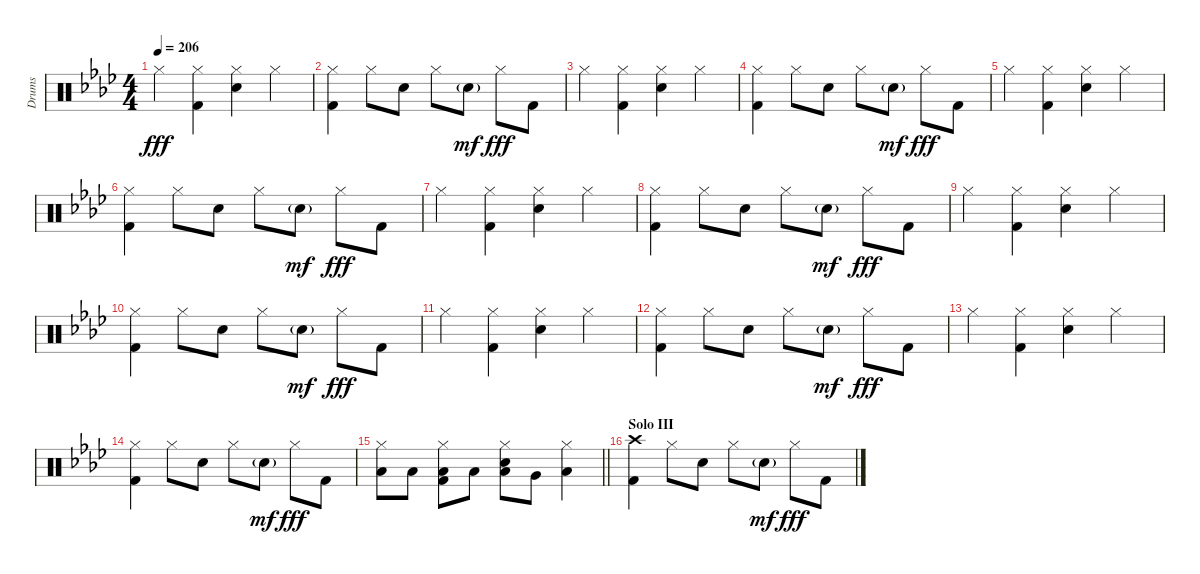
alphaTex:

\track ("Drums" "Drums") {instrument percussion}
\staff {score}
\articulation defaults
\ts (4 4)
\tempo 206
\clef neutral
\ks ab "Hi-Hat (closed)".4{dy fff}
("Hi-Hat (closed)" "Kick (hit) 2").4 ("Hi-Hat (closed)" "Electric Snare (hit)").4 "Hi-Hat (closed)".4 |
("Hi-Hat (closed)" "Kick (hit) 2").4 "Hi-Hat (closed)".8 "Electric Snare (hit)".8 "Hi-Hat (closed)".8 "Electric Snare (hit)"{g}.8{dy mf} "Hi-Hat (closed)".8{dy fff} "Kick (hit) 2".8 |
"Hi-Hat (closed)".4 ("Hi-Hat (closed)" "Kick (hit) 2").4 ("Hi-Hat (closed)" "Electric Snare (hit)").4 "Hi-Hat (closed)".4 |
("Hi-Hat (closed)" "Kick (hit) 2").4 "Hi-Hat (closed)".8 "Electric Snare (hit)".8 "Hi-Hat (closed)".8 "Electric Snare (hit)"{g}.8{dy mf} "Hi-Hat (closed)".8{dy fff} "Kick (hit) 2".8 |
"Hi-Hat (closed)".4 ("Hi-Hat (closed)" "Kick (hit) 2").4 ("Hi-Hat (closed)" "Electric Snare (hit)").4 "Hi-Hat (closed)".4 |
("Hi-Hat (closed)" "Kick (hit) 2").4 "Hi-Hat (closed)".8 "Electric Snare (hit)".8 "Hi-Hat (closed)".8 "Electric Snare (hit)"{g}.8{dy mf} "Hi-Hat (closed)".8{dy fff} "Kick (hit) 2".8 |
"Hi-Hat (closed)".4 ("Hi-Hat (closed)" "Kick (hit) 2").4 ("Hi-Hat (closed)" "Electric Snare (hit)").4 "Hi-Hat (closed)".4 |
("Hi-Hat (closed)" "Kick (hit) 2").4 "Hi-Hat (closed)".8 "Electric Snare (hit)".8 "Hi-Hat (closed)".8 "Electric Snare (hit)"{g}.8{dy mf} "Hi-Hat (closed)".8{dy fff} "Kick (hit) 2".8 |
"Hi-Hat (closed)".4 ("Hi-Hat (closed)" "Kick (hit) 2").4 ("Hi-Hat (closed)" "Electric Snare (hit)").4 "Hi-Hat (closed)".4 |
("Hi-Hat (closed)" "Kick (hit) 2").4 "Hi-Hat (closed)".8 "Electric Snare (hit)".8 "Hi-Hat (closed)".8 "Electric Snare (hit)"{g}.8{dy mf} "Hi-Hat (closed)".8{dy fff} "Kick (hit) 2".8 |
"Hi-Hat (closed)".4 ("Hi-Hat (closed)" "Kick (hit) 2").4 ("Hi-Hat (closed)" "Electric Snare (hit)").4 "Hi-Hat (closed)".4 |
("Hi-Hat (closed)" "Kick (hit) 2").4 "Hi-Hat (closed)".8 "Electric Snare (hit)".8 "Hi-Hat (closed)".8 "Electric Snare (hit)"{g}.8{dy mf} "Hi-Hat (closed)".8{dy fff} "Kick (hit) 2".8 |
"Hi-Hat (closed)".4 ("Hi-Hat (closed)" "Kick (hit) 2").4 ("Hi-Hat (closed)" "Electric Snare (hit)").4 "Hi-Hat (closed)".4 |
("Hi-Hat (closed)" "Kick (hit) 2").4 "Hi-Hat (closed)".8 "Electric Snare (hit)".8 "Hi-Hat (closed)".8 "Electric Snare (hit)"{g}.8{dy mf} "Hi-Hat (closed)".8{dy fff} "Kick (hit) 2".8 |
\barLineRight lightlight
("Hi-Hat (closed)" "Low Tom (hit)").8 "Low Tom (hit)".8 ("Hi-Hat (closed)" "Low Tom (hit)" "Kick (hit) 2").8 "Low Tom (hit)".8 ("Hi-Hat (closed)" "Low Tom (hit)" "Electric Snare (hit)").8 "Very Low Tom (hit)".8 ("Hi-Hat (closed)" "Low Floor Tom (hit)").4 |
\section ("" "Solo III")
("Crash high (hit)" "Kick (hit) 2").4 "Hi-Hat (closed)".8 "Electric Snare (hit)".8 "Hi-Hat (closed)".8 "Electric Snare (hit)"{g}.8{dy mf} "Hi-Hat (closed)".8{dy fff} "Kick (hit) 2".8
